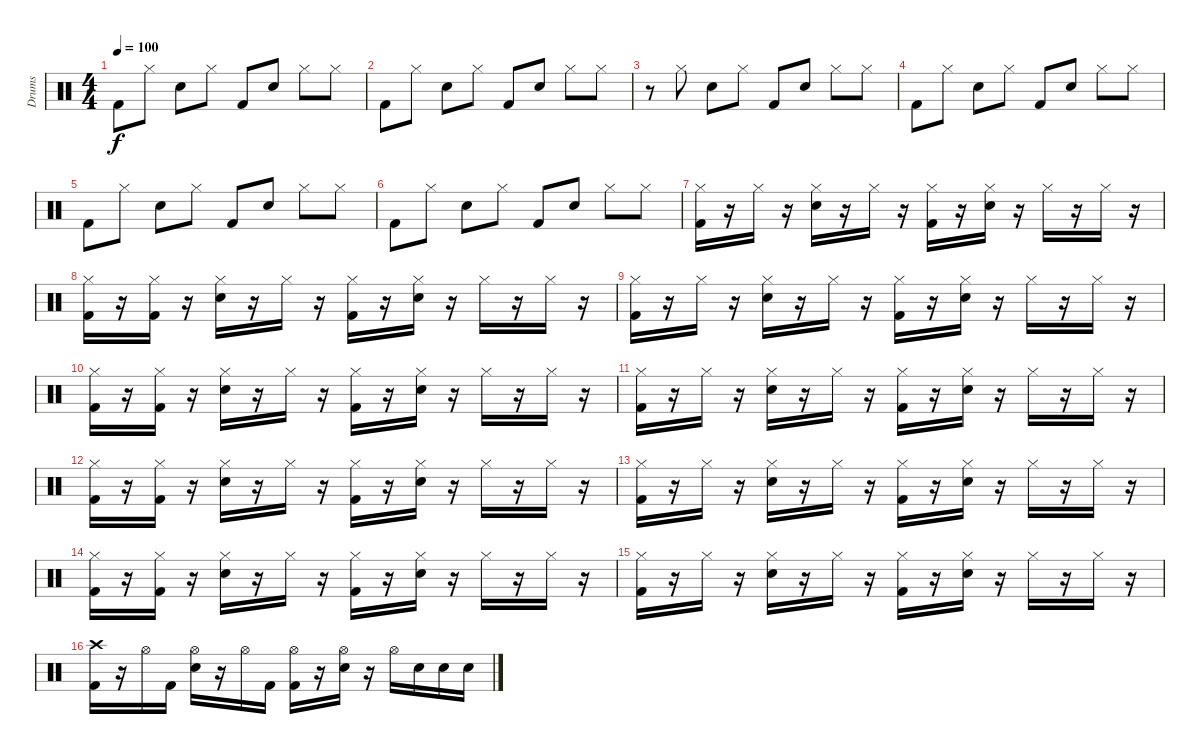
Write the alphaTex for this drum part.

\track ("Drums" "Drums") {instrument percussion}
\staff {score}
\articulation defaults
\ts (4 4)
\tempo 100
\clef neutral
\ks c "Kick (hit) 2".8{dy f} "Hi-Hat (closed)".8 "Hand Clap (hit)".8 "Hi-Hat (closed)".8 "Kick (hit) 2".8 "Hand Clap (hit)".8 "Hi-Hat (closed)".8 "Hi-Hat (closed)".8
|
"Kick (hit) 2".8 "Hi-Hat (closed)".8 "Hand Clap (hit)".8 "Hi-Hat (closed)".8 "Kick (hit) 2".8 "Hand Clap (hit)".8 "Hi-Hat (closed)".8 "Hi-Hat (closed)".8 |
r.8 "Hi-Hat (closed)".8 "Hand Clap (hit)".8 "Hi-Hat (closed)".8 "Kick (hit) 2".8 "Hand Clap (hit)".8 "Hi-Hat (closed)".8 "Hi-Hat (closed)".8 |
"Kick (hit) 2".8 "Hi-Hat (closed)".8 "Hand Clap (hit)".8 "Hi-Hat (closed)".8 "Kick (hit) 2".8 "Hand Clap (hit)".8 "Hi-Hat (closed)".8 "Hi-Hat (closed)".8 |
"Kick (hit) 2".8 "Hi-Hat (closed)".8 "Hand Clap (hit)".8 "Hi-Hat (closed)".8 "Kick (hit) 2".8 "Hand Clap (hit)".8 "Hi-Hat (closed)".8 "Hi-Hat (closed)".8 |
"Kick (hit) 2".8 "Hi-Hat (closed)".8 "Hand Clap (hit)".8 "Hi-Hat (closed)".8 "Kick (hit) 2".8 "Hand Clap (hit)".8 "Hi-Hat (closed)".8 "Hi-Hat (closed)".8 |
("Hi-Hat (closed)" "Kick (hit) 2").16 r.16 "Hi-Hat (closed)".16 r.16 ("Hi-Hat (closed)" "Hand Clap (hit)").16 r.16 "Hi-Hat (closed)".16 r.16 ("Hi-Hat (closed)" "Kick (hit) 2").16 r.16 ("Hi-Hat (closed)" "Hand Clap (hit)").16 r.16 "Hi-Hat (closed)".16 r.16 "Hi-Hat (closed)".16 r.16 |
("Hi-Hat (closed)" "Kick (hit) 2").16 r.16 ("Hi-Hat (closed)" "Kick (hit) 2").16 r.16 ("Hi-Hat (closed)" "Hand Clap (hit)").16 r.16 "Hi-Hat (closed)".16 r.16 ("Hi-Hat (closed)" "Kick (hit) 2").16 r.16 ("Hi-Hat (closed)" "Hand Clap (hit)").16 r.16 "Hi-Hat (closed)".16 r.16 "Hi-Hat (closed)".16 r.16 |
("Hi-Hat (closed)" "Kick (hit) 2").16 r.16 "Hi-Hat (closed)".16 r.16 ("Hi-Hat (closed)" "Hand Clap (hit)").16 r.16 "Hi-Hat (closed)".16 r.16 ("Hi-Hat (closed)" "Kick (hit) 2").16 r.16 ("Hi-Hat (closed)" "Hand Clap (hit)").16 r.16 "Hi-Hat (closed)".16 r.16 "Hi-Hat (closed)".16 r.16 |
("Hi-Hat (closed)" "Kick (hit) 2").16 r.16 ("Hi-Hat (closed)" "Kick (hit) 2").16 r.16 ("Hi-Hat (closed)" "Hand Clap (hit)").16 r.16 "Hi-Hat (closed)".16 r.16 ("Hi-Hat (closed)" "Kick (hit) 2").16 r.16 ("Hi-Hat (closed)" "Hand Clap (hit)").16 r.16 "Hi-Hat (closed)".16 r.16 "Hi-Hat (closed)".16 r.16 |
("Hi-Hat (closed)" "Kick (hit) 2").16 r.16 "Hi-Hat (closed)".16 r.16 ("Hi-Hat (closed)" "Hand Clap (hit)").16 r.16 "Hi-Hat (closed)".16 r.16 ("Hi-Hat (closed)" "Kick (hit) 2").16 r.16 ("Hi-Hat (closed)" "Hand Clap (hit)").16 r.16 "Hi-Hat (closed)".16 r.16 "Hi-Hat (closed)".16 r.16 |
("Hi-Hat (closed)" "Kick (hit) 2").16 r.16 ("Hi-Hat (closed)" "Kick (hit) 2").16 r.16 ("Hi-Hat (closed)" "Hand Clap (hit)").16 r.16 "Hi-Hat (closed)".16 r.16 ("Hi-Hat (closed)" "Kick (hit) 2").16 r.16 ("Hi-Hat (closed)" "Hand Clap (hit)").16 r.16 "Hi-Hat (closed)".16 r.16 "Hi-Hat (closed)".16 r.16 |
("Hi-Hat (closed)" "Kick (hit) 2").16 r.16 "Hi-Hat (closed)".16 r.16 ("Hi-Hat (closed)" "Hand Clap (hit)").16 r.16 "Hi-Hat (closed)".16 r.16 ("Hi-Hat (closed)" "Kick (hit) 2").16 r.16 ("Hi-Hat (closed)" "Hand Clap (hit)").16 r.16 "Hi-Hat (closed)".16 r.16 "Hi-Hat (closed)".16 r.16 |
("Hi-Hat (closed)" "Kick (hit) 2").16 r.16 ("Hi-Hat (closed)" "Kick (hit) 2").16 r.16 ("Hi-Hat (closed)" "Hand Clap (hit)").16 r.16 "Hi-Hat (closed)".16 r.16 ("Hi-Hat (closed)" "Kick (hit) 2").16 r.16 ("Hi-Hat (closed)" "Hand Clap (hit)").16 r.16 "Hi-Hat (closed)".16 r.16 "Hi-Hat (closed)".16 r.16 |
("Hi-Hat (closed)" "Kick (hit) 2").16 r.16 "Hi-Hat (closed)".16 r.16 ("Hi-Hat (closed)" "Hand Clap (hit)").16 r.16 "Hi-Hat (closed)".16 r.16 ("Hi-Hat (closed)" "Kick (hit) 2").16 r.16 ("Hi-Hat (closed)" "Hand Clap (hit)").16 r.16 "Hi-Hat (closed)".16 r.16 "Hi-Hat (closed)".16 r.16 |
("Crash high (hit)" "Kick (hit) 2").16 r.16 "Hi-Hat (open)".16 "Kick (hit) 2".16 ("Hi-Hat (open)" "Electric Snare (hit)").16 r.16 "Hi-Hat (open)".16 "Kick (hit) 2".16 ("Hi-Hat (open)" "Kick (hit) 2").16 r.16 ("Hi-Hat (open)" "Electric Snare (hit)").16 r.16 "Hi-Hat (open)".16 "Electric Snare (hit)".16 "Electric Snare (hit)".16 "Electric Snare (hit)".16
